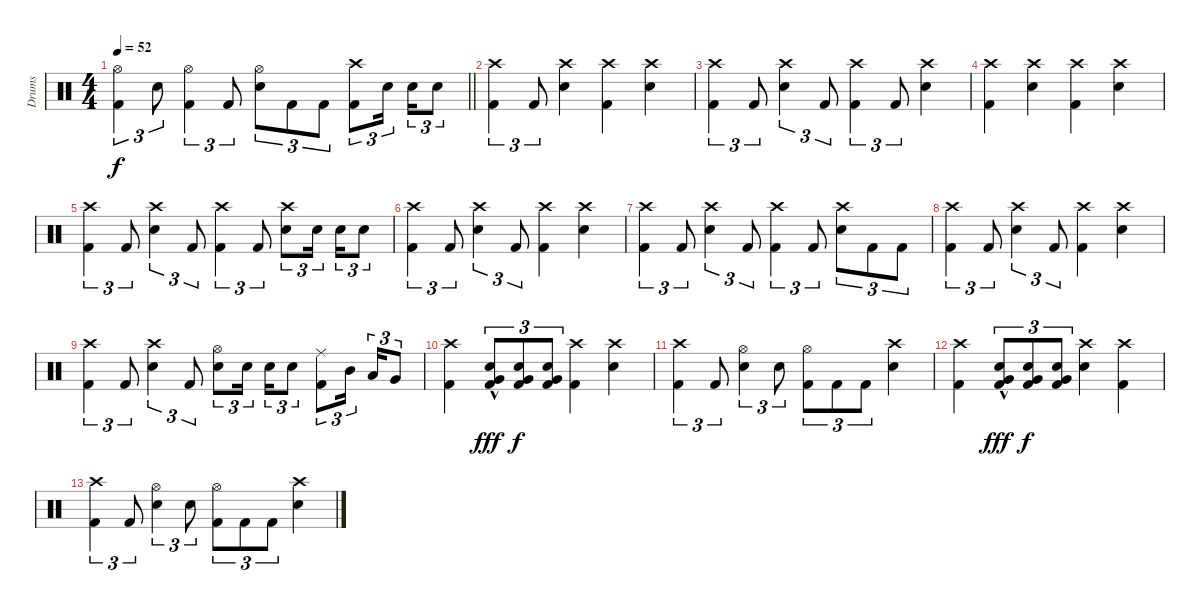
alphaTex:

\track ("Drums" "Drums") {instrument percussion}
\staff {score}
\articulation defaults
\ts (4 4)
\tempo 52
\clef neutral
\barLineRight lightlight
\ks c
("Hi-Hat (open)" "Kick (hit) 2").4{tu (3 2) dy f} "Electric Snare (hit)".8{tu (3 2)} ("Hi-Hat (open)" "Kick (hit) 2").4{tu (3 2)} "Kick (hit) 2".8{tu (3 2)} ("Hi-Hat (open)" "Electric Snare (hit)").8{tu (3 2)} "Kick (hit) 2".8{tu (3 2)} "Kick (hit) 2".8{tu (3 2)} ("Crash high (hit)" "Kick (hit) 2").8{tu (3 2)} "Electric Snare (hit)".16{tu (3 2) beam splitsecondary} "Electric Snare (hit)".16{tu (3 2)} "Electric Snare (hit)".8{tu (3 2)} |
("Crash high (hit)" "Kick (hit) 2").4{tu (3 2)} "Kick (hit) 2".8{tu (3 2)} ("Crash high (hit)" "Electric Snare (hit)").4 ("Crash high (hit)" "Kick (hit) 2").4 ("Crash high (hit)" "Electric Snare (hit)").4 |
("Crash high (hit)" "Kick (hit) 2").4{tu (3 2)} "Kick (hit) 2".8{tu (3 2)} ("Crash high (hit)" "Electric Snare (hit)").4{tu (3 2)} "Kick (hit) 2".8{tu (3 2)} ("Crash high (hit)" "Kick (hit) 2").4{tu (3 2)} "Kick (hit) 2".8{tu (3 2)} ("Crash high (hit)" "Electric Snare (hit)").4 |
("Crash high (hit)" "Kick (hit) 2").4 ("Crash high (hit)" "Electric Snare (hit)").4 ("Crash high (hit)" "Kick (hit) 2").4 ("Crash high (hit)" "Electric Snare (hit)").4 |
("Crash high (hit)" "Kick (hit) 2").4{tu (3 2)} "Kick (hit) 2".8{tu (3 2)} ("Crash high (hit)" "Electric Snare (hit)").4{tu (3 2)} "Kick (hit) 2".8{tu (3 2)} ("Crash high (hit)" "Kick (hit) 2").4{tu (3 2)} "Kick (hit) 2".8{tu (3 2)} ("Crash high (hit)" "Electric Snare (hit)").8{tu (3 2)} "Electric Snare (hit)".16{tu (3 2) beam splitsecondary} "Electric Snare (hit)".16{tu (3 2)} "Electric Snare (hit)".8{tu (3 2)} |
("Crash high (hit)" "Kick (hit) 2").4{tu (3 2)} "Kick (hit) 2".8{tu (3 2)} ("Crash high (hit)" "Electric Snare (hit)").4{tu (3 2)} "Kick (hit) 2".8{tu (3 2)} ("Crash high (hit)" "Kick (hit) 2").4 ("Crash high (hit)" "Electric Snare (hit)").4 |
("Crash high (hit)" "Kick (hit) 2").4{tu (3 2)} "Kick (hit) 2".8{tu (3 2)} ("Crash high (hit)" "Electric Snare (hit)").4{tu (3 2)} "Kick (hit) 2".8{tu (3 2)} ("Crash high (hit)" "Kick (hit) 2").4{tu (3 2)} "Kick (hit) 2".8{tu (3 2)} ("Crash high (hit)" "Electric Snare (hit)").8{tu (3 2)} "Kick (hit) 2".8{tu (3 2)} "Kick (hit) 2".8{tu (3 2)} |
("Crash high (hit)" "Kick (hit) 2").4{tu (3 2)} "Kick (hit) 2".8{tu (3 2)} ("Crash high (hit)" "Electric Snare (hit)").4{tu (3 2)} "Kick (hit) 2".8{tu (3 2)} ("Crash high (hit)" "Kick (hit) 2").4 ("Crash high (hit)" "Electric Snare (hit)").4 |
("Crash high (hit)" "Kick (hit) 2").4{tu (3 2)} "Kick (hit) 2".8{tu (3 2)} ("Crash high (hit)" "Electric Snare (hit)").4{tu (3 2)} "Kick (hit) 2".8{tu (3 2)} ("Hi-Hat (open)" "Electric Snare (hit)").8{tu (3 2)} "Electric Snare (hit)".16{tu (3 2) beam splitsecondary} "Electric Snare (hit)".16{tu (3 2)} "Electric Snare (hit)".8{tu (3 2)} ("Ride (middle)" "Kick (hit) 2").8{tu (3 2)} "Mid Tom (hit)".16{tu (3 2) beam splitsecondary} "Low Tom (hit)".16{tu (3 2)} "Very Low Tom (hit)".8{tu (3 2)} |
("Crash high (hit)" "Kick (hit) 2").4 ("Very Low Tom (hit)" "Electric Snare (hit)"{hac} "Kick (hit) 2").8{tu (3 2) dy fff} ("Very Low Tom (hit)" "Electric Snare (hit)" "Kick (hit) 2").8{tu (3 2) dy f} ("Very Low Tom (hit)" "Electric Snare (hit)" "Kick (hit) 2").8{tu (3 2)} ("Crash high (hit)" "Kick (hit) 2").4 ("Crash high (hit)" "Electric Snare (hit)").4 |
("Crash high (hit)" "Kick (hit) 2").4{tu (3 2)} "Kick (hit) 2".8{tu (3 2)} ("Hi-Hat (open)" "Electric Snare (hit)").4{tu (3 2)} "Electric Snare (hit)".8{tu (3 2)} ("Hi-Hat (open)" "Kick (hit) 2").8{tu (3 2)} "Kick (hit) 2".8{tu (3 2)} "Kick (hit) 2".8{tu (3 2)} ("Crash high (hit)" "Electric Snare (hit)").4 |
("Crash high (hit)" "Kick (hit) 2").4 ("Very Low Tom (hit)" "Electric Snare (hit)"{hac} "Kick (hit) 2").8{tu (3 2) dy fff} ("Very Low Tom (hit)" "Electric Snare (hit)" "Kick (hit) 2").8{tu (3 2) dy f} ("Very Low Tom (hit)" "Electric Snare (hit)" "Kick (hit) 2").8{tu (3 2)} ("Crash high (hit)" "Electric Snare (hit)").4 ("Crash high (hit)" "Kick (hit) 2").4 |
("Crash high (hit)" "Kick (hit) 2").4{tu (3 2)} "Kick (hit) 2".8{tu (3 2)} ("Hi-Hat (open)" "Electric Snare (hit)").4{tu (3 2)} "Electric Snare (hit)".8{tu (3 2)} ("Hi-Hat (open)" "Kick (hit) 2").8{tu (3 2)} "Kick (hit) 2".8{tu (3 2)} "Kick (hit) 2".8{tu (3 2)} ("Crash high (hit)" "Electric Snare (hit)").4
